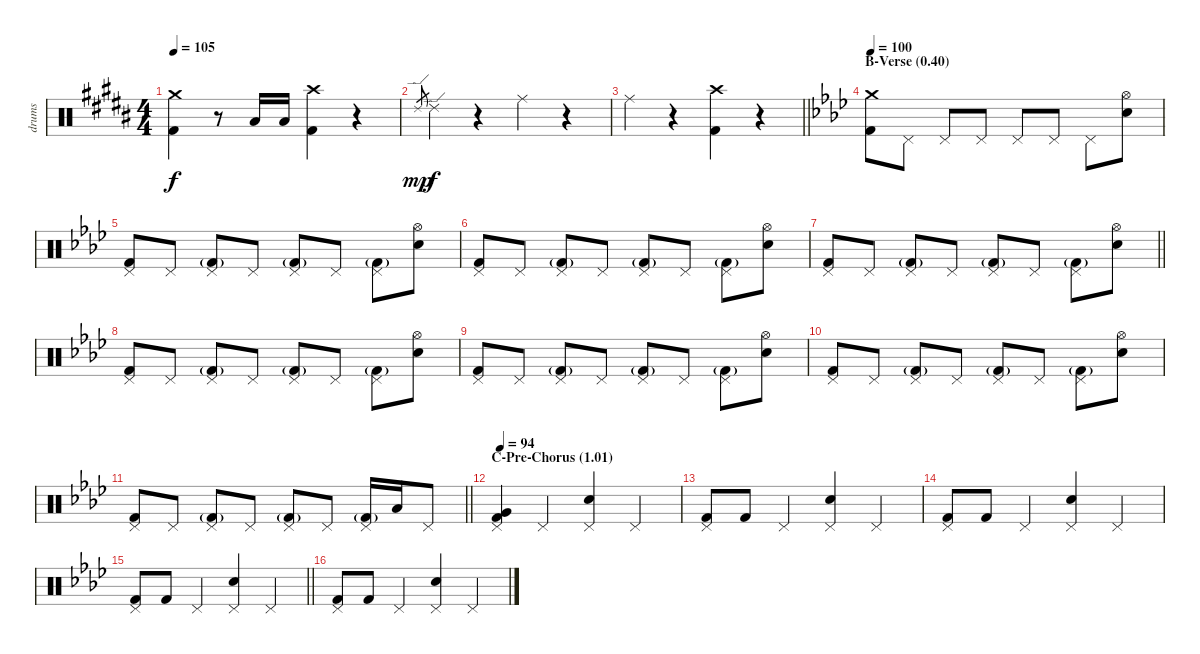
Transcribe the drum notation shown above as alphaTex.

\track ("drums" "drums") {instrument percussion}
\staff {score}
\articulation defaults
\ts (4 4)
\tempo 105
\clef neutral
\ks b
("Crash medium (hit)" "Kick (hit) 2").4{dy f} r.8 "Low Tom (hit)".16 "Low Tom (hit)".16 ("Crash high (hit)" "Kick (hit) 2").4 r.4 |
"Ride (edge) 2".8{gr dy mp} "Ride (edge) 2".4{dy f} r.4 "Ride (middle)".4 r.4 |
\barLineRight lightlight "Ride (middle)".4
r.4 ("Crash high (hit)" "Kick (hit) 2").4 r.4 |
\section ("" "B-Verse (0.40)")
\tempo 100
\ks ab
("Crash medium (hit)" "Kick (hit) 2").8 "Pedal Hi-Hat (hit)".8 "Pedal Hi-Hat (hit)".8 "Pedal Hi-Hat (hit)".8 "Pedal Hi-Hat (hit)".8 "Pedal Hi-Hat (hit)".8 "Pedal Hi-Hat (hit)".8 ("Hi-Hat (open)" "Electric Snare (hit)").8 |
("Pedal Hi-Hat (hit)" "Kick (hit) 2").8 "Pedal Hi-Hat (hit)".8 ("Pedal Hi-Hat (hit)" "Kick (hit) 2"{g}).8 "Pedal Hi-Hat (hit)".8 ("Pedal Hi-Hat (hit)" "Kick (hit) 2"{g}).8 "Pedal Hi-Hat (hit)".8 ("Pedal Hi-Hat (hit)" "Kick (hit) 2"{g}).8 ("Hi-Hat (open)" "Electric Snare (hit)").8 |
("Pedal Hi-Hat (hit)" "Kick (hit) 2").8 "Pedal Hi-Hat (hit)".8 ("Pedal Hi-Hat (hit)" "Kick (hit) 2"{g}).8 "Pedal Hi-Hat (hit)".8 ("Pedal Hi-Hat (hit)" "Kick (hit) 2"{g}).8 "Pedal Hi-Hat (hit)".8 ("Pedal Hi-Hat (hit)" "Kick (hit) 2"{g}).8 ("Hi-Hat (open)" "Electric Snare (hit)").8 |
\barLineRight lightlight
("Pedal Hi-Hat (hit)" "Kick (hit) 2").8 "Pedal Hi-Hat (hit)".8 ("Pedal Hi-Hat (hit)" "Kick (hit) 2"{g}).8 "Pedal Hi-Hat (hit)".8 ("Pedal Hi-Hat (hit)" "Kick (hit) 2"{g}).8 "Pedal Hi-Hat (hit)".8 ("Pedal Hi-Hat (hit)" "Kick (hit) 2"{g}).8 ("Hi-Hat (open)" "Electric Snare (hit)").8 |
("Pedal Hi-Hat (hit)" "Kick (hit) 2").8 "Pedal Hi-Hat (hit)".8 ("Pedal Hi-Hat (hit)" "Kick (hit) 2"{g}).8 "Pedal Hi-Hat (hit)".8 ("Pedal Hi-Hat (hit)" "Kick (hit) 2"{g}).8 "Pedal Hi-Hat (hit)".8 ("Pedal Hi-Hat (hit)" "Kick (hit) 2"{g}).8 ("Hi-Hat (open)" "Electric Snare (hit)").8 |
("Pedal Hi-Hat (hit)" "Kick (hit) 2").8 "Pedal Hi-Hat (hit)".8 ("Pedal Hi-Hat (hit)" "Kick (hit) 2"{g}).8 "Pedal Hi-Hat (hit)".8 ("Pedal Hi-Hat (hit)" "Kick (hit) 2"{g}).8 "Pedal Hi-Hat (hit)".8 ("Pedal Hi-Hat (hit)" "Kick (hit) 2"{g}).8 ("Hi-Hat (open)" "Electric Snare (hit)").8 |
("Pedal Hi-Hat (hit)" "Kick (hit) 2").8 "Pedal Hi-Hat (hit)".8 ("Pedal Hi-Hat (hit)" "Kick (hit) 2"{g}).8 "Pedal Hi-Hat (hit)".8 ("Pedal Hi-Hat (hit)" "Kick (hit) 2"{g}).8 "Pedal Hi-Hat (hit)".8 ("Pedal Hi-Hat (hit)" "Kick (hit) 2"{g}).8 ("Hi-Hat (open)" "Electric Snare (hit)").8 |
\barLineRight lightlight
("Pedal Hi-Hat (hit)" "Kick (hit) 2").8 "Pedal Hi-Hat (hit)".8 ("Pedal Hi-Hat (hit)" "Kick (hit) 2"{g}).8 "Pedal Hi-Hat (hit)".8 ("Pedal Hi-Hat (hit)" "Kick (hit) 2"{g}).8 "Pedal Hi-Hat (hit)".8 ("Pedal Hi-Hat (hit)" "Kick (hit) 2"{g}).16 "Low Tom (hit)".16 "Pedal Hi-Hat (hit)".8 |
\section ("" "C-Pre-Chorus (1.01)")
\tempo 94
("Pedal Hi-Hat (hit)" "Very Low Tom (hit)" "Kick (hit) 2").4 "Pedal Hi-Hat (hit)".4 ("Pedal Hi-Hat (hit)" "Electric Snare (hit)").4 "Pedal Hi-Hat (hit)".4 |
("Pedal Hi-Hat (hit)" "Kick (hit) 2").8 "Kick (hit) 2".8 "Pedal Hi-Hat (hit)".4 ("Pedal Hi-Hat (hit)" "Electric Snare (hit)").4 "Pedal Hi-Hat (hit)".4 |
("Pedal Hi-Hat (hit)" "Kick (hit) 2").8 "Kick (hit) 2".8 "Pedal Hi-Hat (hit)".4 ("Pedal Hi-Hat (hit)" "Electric Snare (hit)").4 "Pedal Hi-Hat (hit)".4 |
\barLineRight lightlight
("Pedal Hi-Hat (hit)" "Kick (hit) 2").8 "Kick (hit) 2".8 "Pedal Hi-Hat (hit)".4 ("Pedal Hi-Hat (hit)" "Electric Snare (hit)").4 "Pedal Hi-Hat (hit)".4 |
("Pedal Hi-Hat (hit)" "Kick (hit) 2").8 "Kick (hit) 2".8 "Pedal Hi-Hat (hit)".4 ("Pedal Hi-Hat (hit)" "Electric Snare (hit)").4 "Pedal Hi-Hat (hit)".4
